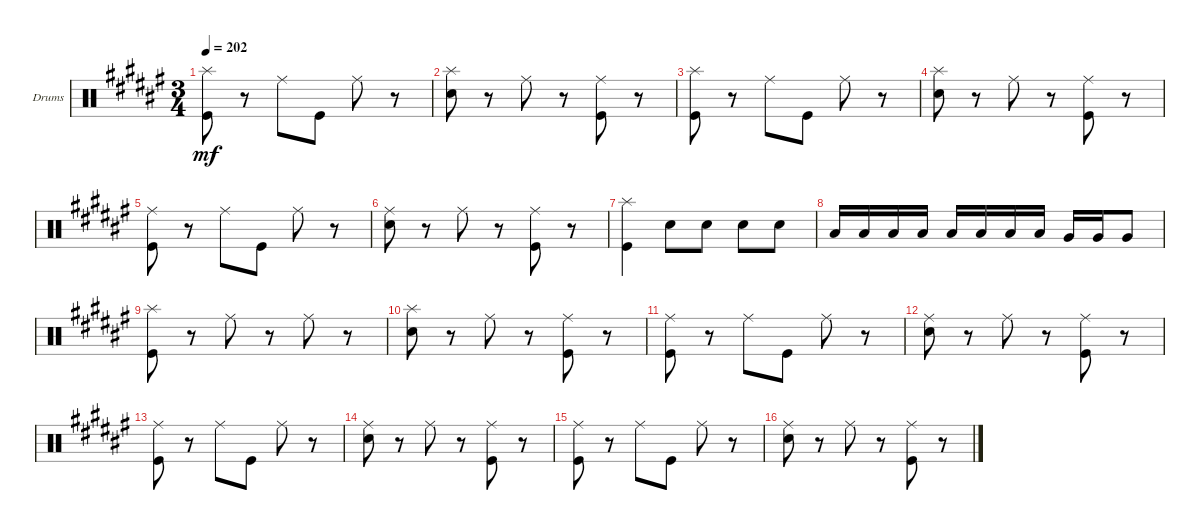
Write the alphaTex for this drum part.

\defaultSystemsLayout 4
\bracketExtendMode groupsimilarinstruments
\firstSystemTrackNameOrientation horizontal
\otherSystemsTrackNameOrientation horizontal
\track ("Drumkit" "Drums") {instrument percussion}
\staff {score}
\articulation defaults
\ts (3 4)
\tempo 202
\clef neutral
\ks f#
("Kick (hit)" "Splash (hit)").8{dy mf} r.8 "Ride (middle)".8 "Kick (hit)".8 "Ride (middle)".8 r.8 |
("Snare (hit) 2" "Splash (hit)").8 r.8 "Ride (middle)".8 r.8 ("Kick (hit)" "Ride (middle)").8 r.8 |
("Kick (hit)" "Splash (hit)").8 r.8 "Ride (middle)".8 "Kick (hit)".8 "Ride (middle)".8 r.8 |
("Snare (hit) 2" "Splash (hit)").8 r.8 "Ride (middle)".8 r.8 ("Kick (hit)" "Ride (middle)").8 r.8 |
("Kick (hit)" "Ride (middle)").8 r.8 "Ride (middle)".8 "Kick (hit)".8 "Ride (middle)".8 r.8 |
("Snare (hit) 2" "Ride (middle)").8 r.8 "Ride (middle)".8 r.8 ("Kick (hit)" "Ride (middle)").8 r.8 |
("Kick (hit)" "Splash (hit)").4 "Snare (hit) 2".8 "Snare (hit) 2".8 "Snare (hit) 2".8 "Snare (hit) 2".8 |
"Low Tom (hit)".16 "Low Tom (hit)".16 "Low Tom (hit)".16 "Low Tom (hit)".16 "Low Tom (hit)".16 "Low Tom (hit)".16 "Low Tom (hit)".16 "Low Tom (hit)".16 "Very Low Tom (hit)".16 "Very Low Tom (hit)".16 "Very Low Tom (hit)".8 |
("Kick (hit)" "Splash (hit)").8 r.8 "Ride (middle)".8 r.8 "Ride (middle)".8 r.8 |
("Snare (hit) 2" "Splash (hit)").8 r.8 "Ride (middle)".8 r.8 ("Kick (hit)" "Ride (middle)").8 r.8 |
("Kick (hit)" "Ride (middle)").8 r.8 "Ride (middle)".8 "Kick (hit)".8 "Ride (middle)".8 r.8 |
("Snare (hit) 2" "Ride (middle)").8 r.8 "Ride (middle)".8 r.8 ("Kick (hit)" "Ride (middle)").8 r.8 |
("Kick (hit)" "Ride (middle)").8 r.8 "Ride (middle)".8 "Kick (hit)".8 "Ride (middle)".8 r.8 |
("Snare (hit) 2" "Ride (middle)").8 r.8 "Ride (middle)".8 r.8 ("Kick (hit)" "Ride (middle)").8 r.8 |
("Kick (hit)" "Ride (middle)").8 r.8 "Ride (middle)".8 "Kick (hit)".8 "Ride (middle)".8 r.8 |
("Snare (hit) 2" "Ride (middle)").8 r.8 "Ride (middle)".8 r.8 ("Kick (hit)" "Ride (middle)").8 r.8
